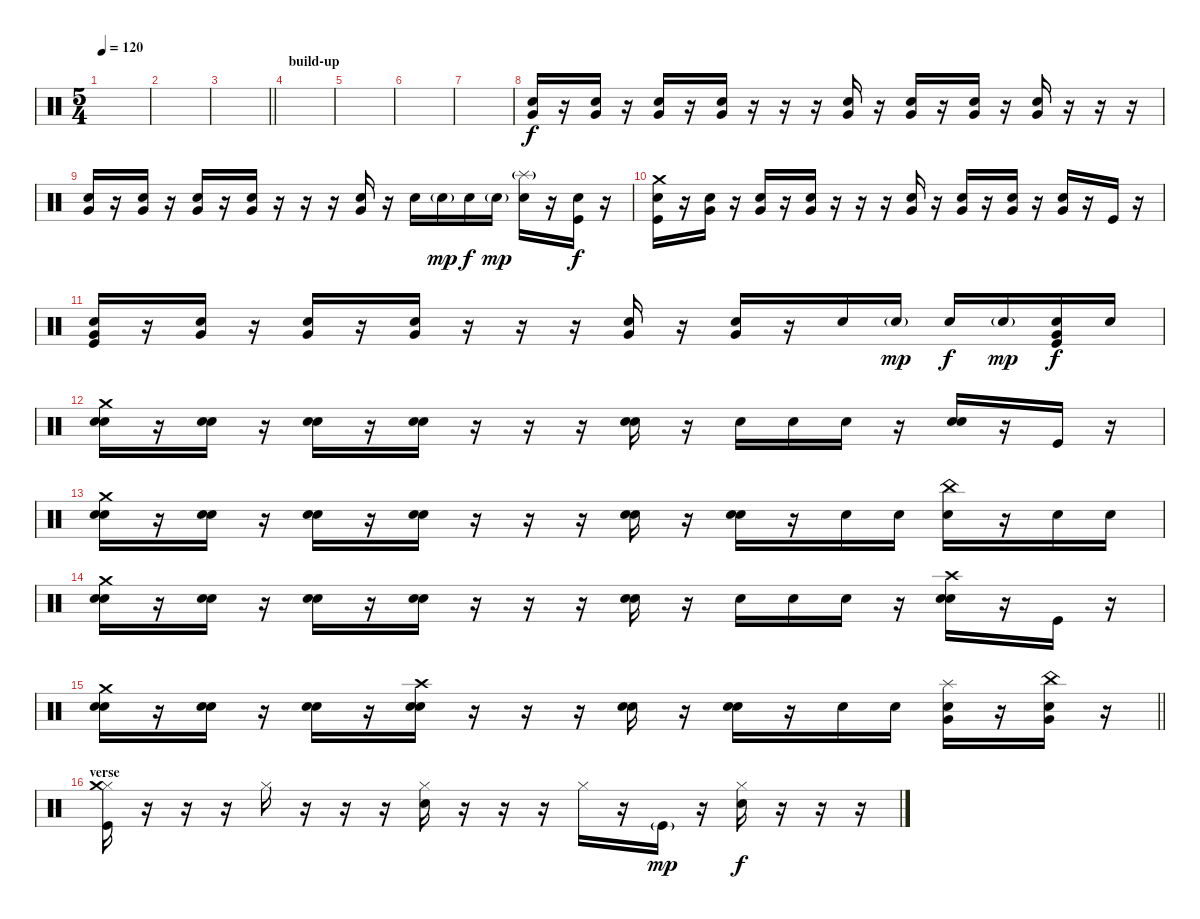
\track "" {instrument percussion}
\staff {score}
\articulation defaults
\ts (5 4)
\tempo 120
\clef neutral
\ks c
|
|
\barLineRight lightlight
|
\section ("" "build-up")
|
|
|
|
("Snare (hit) 2" "Very Low Tom (hit)").16{dy f volume 3} r.16 ("Snare (hit) 2" "Very Low Tom (hit)").16 r.16 ("Snare (hit) 2" "Very Low Tom (hit)").16 r.16 ("Snare (hit) 2" "Very Low Tom (hit)").16 r.16 r.16 r.16 ("Snare (hit) 2" "Very Low Tom (hit)").16 r.16 ("Snare (hit) 2" "Very Low Tom (hit)").16 r.16 ("Snare (hit) 2" "Very Low Tom (hit)").16 r.16 ("Snare (hit) 2" "Very Low Tom (hit)").16 r.16 r.16 r.16 |
("Snare (hit) 2" "Very Low Tom (hit)").16 r.16 ("Snare (hit) 2" "Very Low Tom (hit)").16 r.16 ("Snare (hit) 2" "Very Low Tom (hit)").16 r.16 ("Snare (hit) 2" "Very Low Tom (hit)").16 r.16 r.16 r.16 ("Snare (hit) 2" "Very Low Tom (hit)").16 r.16 "Snare (hit) 2".16 "Snare (hit) 2"{g}.16{dy mp} "Snare (hit) 2".16{dy f} "Snare (hit) 2"{g}.16{dy mp} ("Snare (hit) 2" "Splash (hit)"{g}).16 r.16 ("Kick (hit)" "Snare (hit) 2").16{dy f} r.16 |
("Kick (hit)" "Snare (hit) 2" "Crash medium (hit)").16{volume 7} r.16 ("Snare (hit) 2" "Very Low Tom (hit)").16 r.16 ("Snare (hit) 2" "Very Low Tom (hit)").16 r.16 ("Snare (hit) 2" "Very Low Tom (hit)").16 r.16 r.16 r.16 ("Snare (hit) 2" "Very Low Tom (hit)").16 r.16 ("Snare (hit) 2" "Very Low Tom (hit)").16 r.16 ("Snare (hit) 2" "Very Low Tom (hit)").16 r.16 ("Snare (hit) 2" "Very Low Tom (hit)").16 r.16 "Kick (hit)".16 r.16 |
("Kick (hit)" "Snare (hit) 2" "Very Low Tom (hit)").16 r.16 ("Snare (hit) 2" "Very Low Tom (hit)").16 r.16 ("Snare (hit) 2" "Very Low Tom (hit)").16 r.16 ("Snare (hit) 2" "Very Low Tom (hit)").16 r.16 r.16 r.16 ("Snare (hit) 2" "Very Low Tom (hit)").16 r.16 ("Snare (hit) 2" "Very Low Tom (hit)").16 r.16 "Snare (hit) 2".16 "Snare (hit) 2"{g}.16{dy mp} "Snare (hit) 2".16{dy f} "Snare (hit) 2"{g}.16{dy mp} ("Kick (hit)" "Snare (hit) 2" "Very Low Tom (hit)").16{dy f} "Snare (hit) 2".16 |
("Snare (hit) 2" "Snare (hit) 2" "Crash medium (hit)").16 r.16 ("Snare (hit) 2" "Snare (hit) 2").16 r.16 ("Snare (hit) 2" "Snare (hit) 2").16 r.16 ("Snare (hit) 2" "Snare (hit) 2").16 r.16 r.16 r.16 ("Snare (hit) 2" "Snare (hit) 2").16 r.16 "Snare (hit) 2".16 "Snare (hit) 2".16 "Snare (hit) 2".16 r.16 ("Snare (hit) 2" "Snare (hit) 2").16 r.16 "Kick (hit)".16 r.16 |
("Snare (hit) 2" "Snare (hit) 2" "Crash medium (hit)").16 r.16 ("Snare (hit) 2" "Snare (hit) 2").16 r.16 ("Snare (hit) 2" "Snare (hit) 2").16 r.16 ("Snare (hit) 2" "Snare (hit) 2").16 r.16 r.16 r.16 ("Snare (hit) 2" "Snare (hit) 2").16 r.16 ("Snare (hit) 2" "Snare (hit) 2").16 r.16 "Snare (hit) 2".16 "Snare (hit) 2".16 ("Snare (hit) 2" "China (hit)").16 r.16 "Snare (hit) 2".16 "Snare (hit) 2".16 |
("Snare (hit) 2" "Snare (hit) 2" "Crash medium (hit)").16 r.16 ("Snare (hit) 2" "Snare (hit) 2").16 r.16 ("Snare (hit) 2" "Snare (hit) 2").16 r.16 ("Snare (hit) 2" "Snare (hit) 2").16 r.16 r.16 r.16 ("Snare (hit) 2" "Snare (hit) 2").16 r.16 "Snare (hit) 2".16 "Snare (hit) 2".16 "Snare (hit) 2".16 r.16 ("Snare (hit) 2" "Snare (hit) 2" "Crash high (hit)").16 r.16 "Kick (hit)".16 r.16 |
\barLineRight lightlight
("Snare (hit) 2" "Snare (hit) 2" "Crash medium (hit)").16 r.16 ("Snare (hit) 2" "Snare (hit) 2").16 r.16 ("Snare (hit) 2" "Snare (hit) 2").16 r.16 ("Snare (hit) 2" "Snare (hit) 2" "Crash high (hit)").16 r.16 r.16 r.16 ("Snare (hit) 2" "Snare (hit) 2").16 r.16 ("Snare (hit) 2" "Snare (hit) 2").16 r.16 "Snare (hit) 2".16 "Snare (hit) 2".16 ("Snare (hit) 2" "Very Low Tom (hit)" "Splash (hit)").16 r.16 ("Snare (hit) 2" "Very Low Tom (hit)" "China (hit)").16 r.16 |
\section ("" "verse")
("Kick (hit)" "Hi-Hat (closed)" "Crash medium (hit)").16 r.16 r.16 r.16 "Hi-Hat (closed)".16 r.16 r.16 r.16 ("Snare (hit) 2" "Hi-Hat (closed)").16 r.16 r.16 r.16 "Hi-Hat (closed)".16 r.16 "Kick (hit)"{g}.16{dy mp} r.16 ("Snare (hit) 2" "Hi-Hat (closed)").16{dy f} r.16 r.16 r.16
